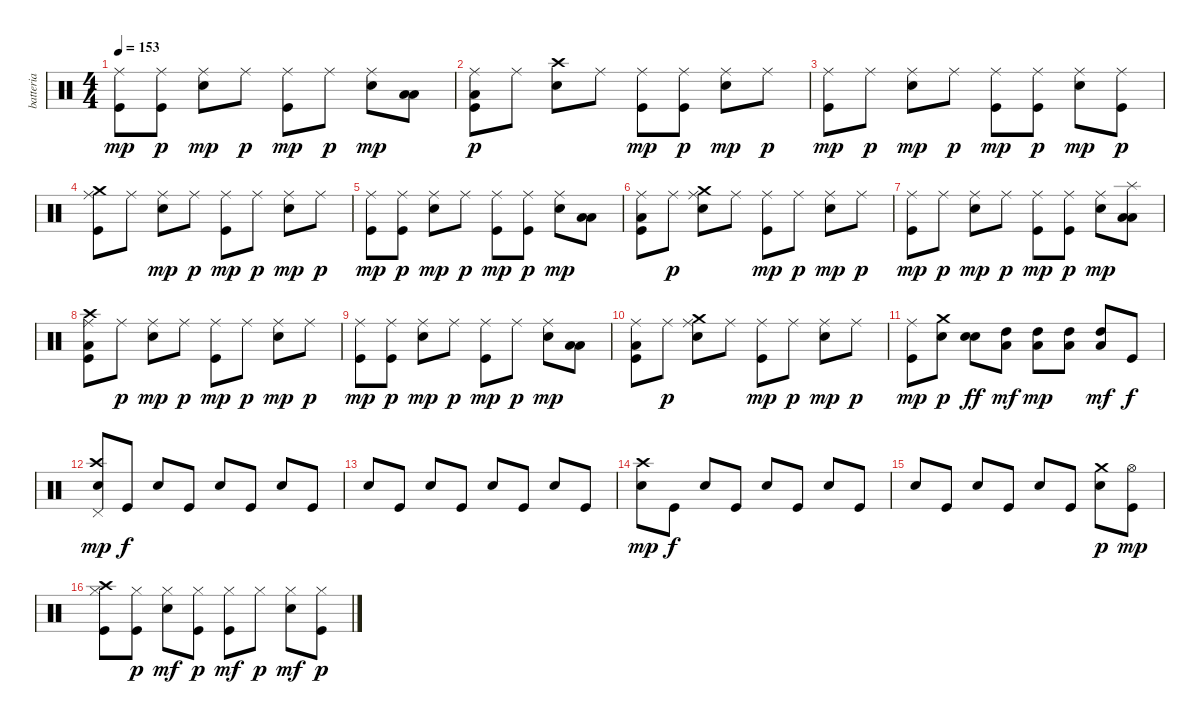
\track ("batteria" "batteria") {instrument percussion}
\staff {score}
\articulation defaults
\ts (4 4)
\tempo 153
\clef neutral
\ks c
("Kick (hit)" "Ride (middle)").8{dy mp} ("Kick (hit)" "Ride (middle)").8{dy p} ("Ride (middle)" "Electric Snare (hit)").8{dy mp} "Ride (middle)".8{dy p} ("Kick (hit)" "Ride (middle)").8{dy mp} "Ride (middle)".8{dy p} ("Ride (middle)" "Electric Snare (hit)").8{dy mp} ("Low Tom (hit)" "Low Tom (hit)").8 |
("Kick (hit)" "Low Floor Tom (hit)" "Ride (middle)").8{dy p} "Ride (middle)".8 ("Crash high (hit)" "Electric Snare (hit)").8 "Ride (middle)".8 ("Kick (hit)" "Ride (middle)").8{dy mp} ("Kick (hit)" "Ride (middle)").8{dy p} ("Ride (middle)" "Electric Snare (hit)").8{dy mp} "Ride (middle)".8{dy p} |
("Kick (hit)" "Ride (middle)").8{dy mp} "Ride (middle)".8{dy p} ("Ride (middle)" "Electric Snare (hit)").8{dy mp} "Ride (middle)".8{dy p} ("Kick (hit)" "Ride (middle)").8{dy mp} ("Kick (hit)" "Ride (middle)").8{dy p} ("Ride (middle)" "Electric Snare (hit)").8{dy mp} ("Kick (hit)" "Ride (middle)").8{dy p} |
("Kick (hit)" "Ride (middle)" "Crash medium (hit)").8 "Ride (middle)".8 ("Ride (middle)" "Electric Snare (hit)").8{dy mp} "Ride (middle)".8{dy p} ("Kick (hit)" "Ride (middle)").8{dy mp} "Ride (middle)".8{dy p} ("Ride (middle)" "Electric Snare (hit)").8{dy mp} "Ride (middle)".8{dy p} |
("Kick (hit)" "Ride (middle)").8{dy mp} ("Kick (hit)" "Ride (middle)").8{dy p} ("Ride (middle)" "Electric Snare (hit)").8{dy mp} "Ride (middle)".8{dy p} ("Kick (hit)" "Ride (middle)").8{dy mp} ("Kick (hit)" "Ride (middle)").8{dy p} ("Ride (middle)" "Electric Snare (hit)").8{dy mp} ("Low Tom (hit)" "Low Tom (hit)").8 |
("Kick (hit)" "Low Floor Tom (hit)" "Ride (middle)").8 "Ride (middle)".8{dy p} ("Ride (middle)" "Crash medium (hit)" "Electric Snare (hit)").8 "Ride (middle)".8 ("Kick (hit)" "Ride (middle)").8{dy mp} "Ride (middle)".8{dy p} ("Ride (middle)" "Electric Snare (hit)").8{dy mp} "Ride (middle)".8{dy p} |
("Kick (hit)" "Ride (middle)").8{dy mp} "Ride (middle)".8{dy p} ("Ride (middle)" "Electric Snare (hit)").8{dy mp} "Ride (middle)".8{dy p} ("Kick (hit)" "Ride (middle)").8{dy mp} ("Kick (hit)" "Ride (middle)").8{dy p} ("Ride (middle)" "Electric Snare (hit)").8{dy mp} ("Low Tom (hit)" "Splash (hit)" "Low Tom (hit)").8 |
("Kick (hit)" "Low Floor Tom (hit)" "Crash high (hit)" "Ride (middle)").8 "Ride (middle)".8{dy p} ("Ride (middle)" "Electric Snare (hit)").8{dy mp} "Ride (middle)".8{dy p} ("Kick (hit)" "Ride (middle)").8{dy mp} "Ride (middle)".8{dy p} ("Ride (middle)" "Electric Snare (hit)").8{dy mp} "Ride (middle)".8{dy p} |
("Kick (hit)" "Ride (middle)").8{dy mp} ("Kick (hit)" "Ride (middle)").8{dy p} ("Ride (middle)" "Electric Snare (hit)").8{dy mp} "Ride (middle)".8{dy p} ("Kick (hit)" "Ride (middle)").8{dy mp} "Ride (middle)".8{dy p} ("Ride (middle)" "Electric Snare (hit)").8{dy mp} ("Low Tom (hit)" "Low Tom (hit)").8 |
("Kick (hit)" "Low Floor Tom (hit)" "Ride (middle)").8 "Ride (middle)".8{dy p} ("Ride (middle)" "Crash medium (hit)" "Electric Snare (hit)").8 "Ride (middle)".8 ("Kick (hit)" "Ride (middle)").8{dy mp} "Ride (middle)".8{dy p} ("Ride (middle)" "Electric Snare (hit)").8{dy mp} "Ride (middle)".8{dy p} |
("Kick (hit)" "Ride (middle)").8{dy mp} ("Crash medium (hit)" "Electric Snare (hit)").8{dy p} ("Electric Snare (hit)" "Electric Snare (hit)").8{dy ff} ("High Tom (hit)" "Low Tom (hit)").8{dy mf} ("High Tom (hit)" "Low Tom (hit)").8{dy mp} ("High Tom (hit)" "Low Tom (hit)").8 ("High Tom (hit)" "Low Tom (hit)").8{dy mf} "Kick (hit)".8{dy f} |
("Pedal Hi-Hat (hit)" "Crash high (hit)" "Electric Snare (hit)").8{dy mp} "Kick (hit)".8{dy f} "Electric Snare (hit)".8 "Kick (hit)".8 "Electric Snare (hit)".8 "Kick (hit)".8 "Electric Snare (hit)".8 "Kick (hit)".8 |
"Electric Snare (hit)".8 "Kick (hit)".8 "Electric Snare (hit)".8 "Kick (hit)".8 "Electric Snare (hit)".8 "Kick (hit)".8 "Electric Snare (hit)".8 "Kick (hit)".8 |
("Crash high (hit)" "Electric Snare (hit)").8{dy mp} "Kick (hit)".8{dy f} "Electric Snare (hit)".8 "Kick (hit)".8 "Electric Snare (hit)".8 "Kick (hit)".8 "Electric Snare (hit)".8 "Kick (hit)".8 |
"Electric Snare (hit)".8 "Kick (hit)".8 "Electric Snare (hit)".8 "Kick (hit)".8 "Electric Snare (hit)".8 "Kick (hit)".8 ("Crash medium (hit)" "Electric Snare (hit)").8{dy p} ("Kick (hit)" "Hi-Hat (open)").8{dy mp} |
("Kick (hit)" "Hi-Hat (closed)" "Crash high (hit)").8 ("Kick (hit)" "Hi-Hat (closed)").8{dy p} ("Hi-Hat (closed)" "Electric Snare (hit)").8{dy mf} ("Kick (hit)" "Hi-Hat (closed)").8{dy p} ("Kick (hit)" "Hi-Hat (closed)").8{dy mf} "Hi-Hat (closed)".8{dy p} ("Hi-Hat (closed)" "Electric Snare (hit)").8{dy mf} ("Kick (hit)" "Hi-Hat (closed)").8{dy p}
